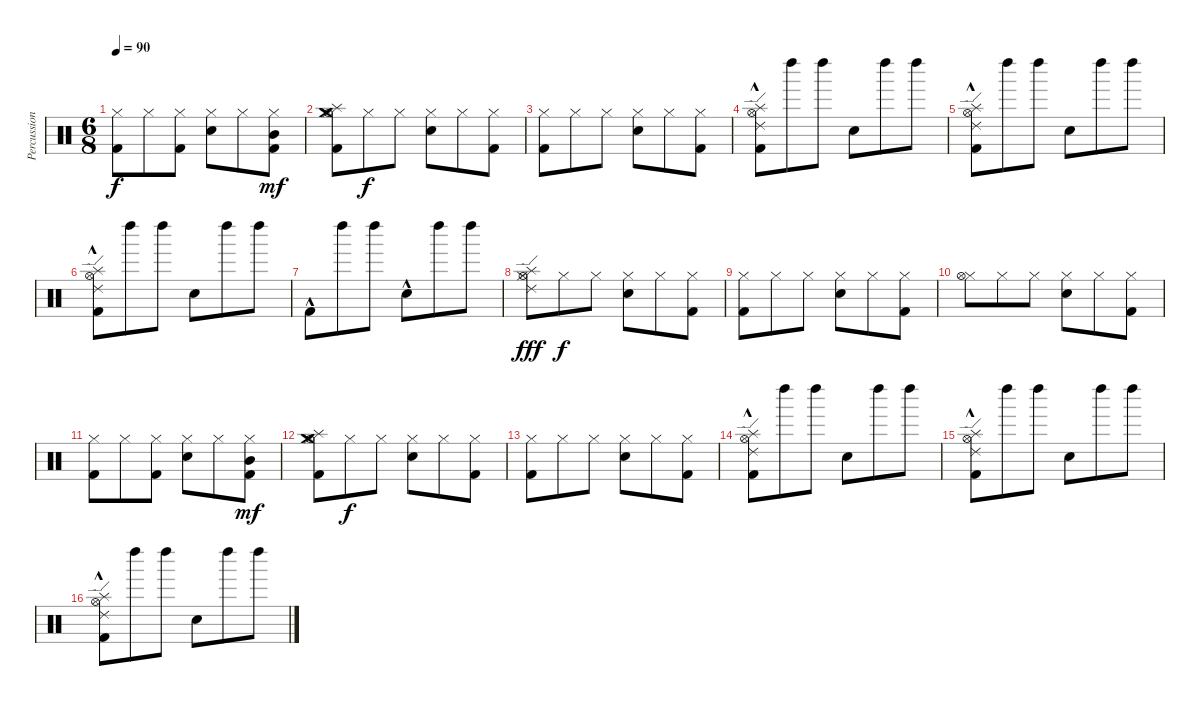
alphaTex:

\track ("Percussion" "Percussion") {instrument percussion}
\staff {score}
\articulation defaults
\ts (6 8)
\tempo 90
\clef neutral
\ks c
("Hi-Hat (closed)" "Kick (hit) 2").8{dy f} "Hi-Hat (closed)".8 ("Hi-Hat (closed)" "Kick (hit) 2").8 ("Hi-Hat (closed)" "Snare (hit) 2").8 "Hi-Hat (closed)".8 ("Hi-Hat (closed)" "Mid Tom (hit)" "Kick (hit) 2").8{dy mf} |
("Hi-Hat (closed)" "Hi-Hat (open)" "Splash (hit)" "Crash medium (hit)" "Kick (hit) 2").8 "Hi-Hat (closed)".8{dy f} "Hi-Hat (closed)".8 ("Hi-Hat (closed)" "Snare (hit) 2").8 "Hi-Hat (closed)".8 ("Hi-Hat (closed)" "Kick (hit) 2").8 |
("Hi-Hat (closed)" "Kick (hit) 2").8 "Hi-Hat (closed)".8 "Hi-Hat (closed)".8 ("Hi-Hat (closed)" "Snare (hit) 2").8 "Hi-Hat (closed)".8 ("Hi-Hat (closed)" "Kick (hit) 2").8 |
("Hi-Hat (open)" "Splash (hit)" "Ride (edge) 2" "Kick (hit) 2"{hac}).8 "Left Maraca (hit)".8 "Left Maraca (hit)".8 "Snare (hit) 2".8 "Left Maraca (hit)".8 "Left Maraca (hit)".8 |
("Hi-Hat (open)" "Splash (hit)" "Ride (edge) 2" "Kick (hit) 2"{hac}).8 "Left Maraca (hit)".8 "Left Maraca (hit)".8 "Snare (hit) 2".8 "Left Maraca (hit)".8 "Left Maraca (hit)".8 |
("Hi-Hat (open)" "Splash (hit)" "Ride (edge) 2" "Kick (hit) 2"{hac}).8 "Left Maraca (hit)".8 "Left Maraca (hit)".8 "Snare (hit) 2".8 "Left Maraca (hit)".8 "Left Maraca (hit)".8 |
"Kick (hit) 2"{hac}.8 "Left Maraca (hit)".8 "Left Maraca (hit)".8 "Snare (hit) 2"{hac}.8 "Left Maraca (hit)".8 "Left Maraca (hit)".8 |
("Hi-Hat (closed)" "Hi-Hat (open)" "Splash (hit)" "Ride (edge) 2").8{dy fff} "Hi-Hat (closed)".8{dy f} "Hi-Hat (closed)".8 ("Hi-Hat (closed)" "Snare (hit) 2").8 "Hi-Hat (closed)".8 ("Hi-Hat (closed)" "Kick (hit) 2").8 |
("Hi-Hat (closed)" "Kick (hit) 2").8 "Hi-Hat (closed)".8 "Hi-Hat (closed)".8 ("Hi-Hat (closed)" "Snare (hit) 2").8 "Hi-Hat (closed)".8 ("Hi-Hat (closed)" "Kick (hit) 2").8 |
("Hi-Hat (closed)" "Hi-Hat (open)").8 "Hi-Hat (closed)".8 "Hi-Hat (closed)".8 ("Hi-Hat (closed)" "Snare (hit) 2").8 "Hi-Hat (closed)".8 ("Hi-Hat (closed)" "Kick (hit) 2").8 |
("Hi-Hat (closed)" "Kick (hit) 2").8 "Hi-Hat (closed)".8 ("Hi-Hat (closed)" "Kick (hit) 2").8 ("Hi-Hat (closed)" "Snare (hit) 2").8 "Hi-Hat (closed)".8 ("Hi-Hat (closed)" "Mid Tom (hit)" "Kick (hit) 2").8{dy mf} |
("Hi-Hat (closed)" "Hi-Hat (open)" "Splash (hit)" "Crash medium (hit)" "Kick (hit) 2").8 "Hi-Hat (closed)".8{dy f} "Hi-Hat (closed)".8 ("Hi-Hat (closed)" "Snare (hit) 2").8 "Hi-Hat (closed)".8 ("Hi-Hat (closed)" "Kick (hit) 2").8 |
("Hi-Hat (closed)" "Kick (hit) 2").8 "Hi-Hat (closed)".8 "Hi-Hat (closed)".8 ("Hi-Hat (closed)" "Snare (hit) 2").8 "Hi-Hat (closed)".8 ("Hi-Hat (closed)" "Kick (hit) 2").8 |
("Hi-Hat (open)" "Splash (hit)" "Ride (edge) 2" "Kick (hit) 2"{hac}).8 "Left Maraca (hit)".8 "Left Maraca (hit)".8 "Snare (hit) 2".8 "Left Maraca (hit)".8 "Left Maraca (hit)".8 |
("Hi-Hat (open)" "Splash (hit)" "Ride (edge) 2" "Kick (hit) 2"{hac}).8 "Left Maraca (hit)".8 "Left Maraca (hit)".8 "Snare (hit) 2".8 "Left Maraca (hit)".8 "Left Maraca (hit)".8 |
("Hi-Hat (open)" "Splash (hit)" "Ride (edge) 2" "Kick (hit) 2"{hac}).8 "Left Maraca (hit)".8 "Left Maraca (hit)".8 "Snare (hit) 2".8 "Left Maraca (hit)".8 "Left Maraca (hit)".8
